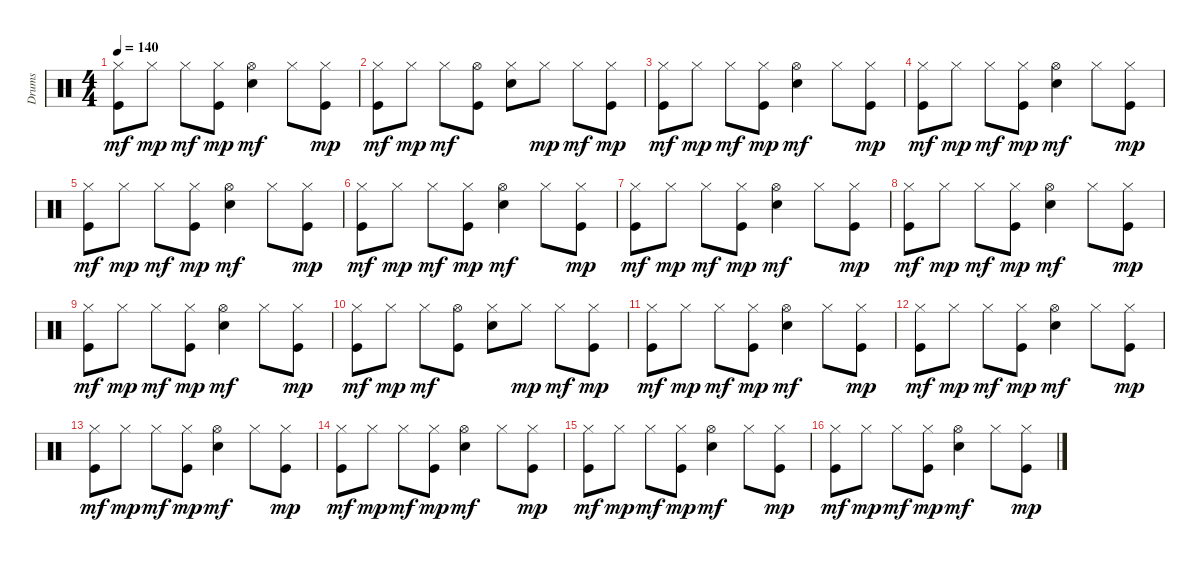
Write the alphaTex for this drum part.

\track ("Drums" "Drums") {instrument percussion}
\staff {score}
\articulation defaults
\ts (4 4)
\tempo 140
\clef neutral
\ks c
("Hi-Hat (closed)" "Kick (hit)").8{dy mf} "Hi-Hat (closed)".8{dy mp} "Hi-Hat (closed)".8{dy mf} ("Hi-Hat (closed)" "Kick (hit)").8{dy mp} ("Hi-Hat (open)" "Electric Snare (hit)").4{dy mf} "Hi-Hat (closed)".8 ("Hi-Hat (closed)" "Kick (hit)").8{dy mp} |
("Hi-Hat (closed)" "Kick (hit)").8{dy mf} "Hi-Hat (closed)".8{dy mp} "Hi-Hat (closed)".8{dy mf} ("Hi-Hat (open)" "Kick (hit)").8 ("Hi-Hat (closed)" "Electric Snare (hit)").8 "Hi-Hat (closed)".8{dy mp} "Hi-Hat (closed)".8{dy mf} ("Hi-Hat (closed)" "Kick (hit)").8{dy mp} |
("Kick (hit)" "Hi-Hat (closed)").8{dy mf} "Hi-Hat (closed)".8{dy mp} "Hi-Hat (closed)".8{dy mf} ("Kick (hit)" "Hi-Hat (closed)").8{dy mp} ("Electric Snare (hit)" "Hi-Hat (open)").4{dy mf} "Hi-Hat (closed)".8 ("Kick (hit)" "Hi-Hat (closed)").8{dy mp} |
("Kick (hit)" "Hi-Hat (closed)").8{dy mf} "Hi-Hat (closed)".8{dy mp} "Hi-Hat (closed)".8{dy mf} ("Kick (hit)" "Hi-Hat (closed)").8{dy mp} ("Electric Snare (hit)" "Hi-Hat (open)").4{dy mf} "Hi-Hat (closed)".8 ("Kick (hit)" "Hi-Hat (closed)").8{dy mp} |
("Kick (hit)" "Hi-Hat (closed)").8{dy mf} "Hi-Hat (closed)".8{dy mp} "Hi-Hat (closed)".8{dy mf} ("Kick (hit)" "Hi-Hat (closed)").8{dy mp} ("Electric Snare (hit)" "Hi-Hat (open)").4{dy mf} "Hi-Hat (closed)".8 ("Kick (hit)" "Hi-Hat (closed)").8{dy mp} |
("Kick (hit)" "Hi-Hat (closed)").8{dy mf} "Hi-Hat (closed)".8{dy mp} "Hi-Hat (closed)".8{dy mf} ("Kick (hit)" "Hi-Hat (closed)").8{dy mp} ("Electric Snare (hit)" "Hi-Hat (open)").4{dy mf} "Hi-Hat (closed)".8 ("Kick (hit)" "Hi-Hat (closed)").8{dy mp} |
("Kick (hit)" "Hi-Hat (closed)").8{dy mf} "Hi-Hat (closed)".8{dy mp} "Hi-Hat (closed)".8{dy mf} ("Kick (hit)" "Hi-Hat (closed)").8{dy mp} ("Electric Snare (hit)" "Hi-Hat (open)").4{dy mf} "Hi-Hat (closed)".8 ("Kick (hit)" "Hi-Hat (closed)").8{dy mp} |
("Kick (hit)" "Hi-Hat (closed)").8{dy mf} "Hi-Hat (closed)".8{dy mp} "Hi-Hat (closed)".8{dy mf} ("Kick (hit)" "Hi-Hat (closed)").8{dy mp} ("Electric Snare (hit)" "Hi-Hat (open)").4{dy mf} "Hi-Hat (closed)".8 ("Kick (hit)" "Hi-Hat (closed)").8{dy mp} |
("Kick (hit)" "Hi-Hat (closed)").8{dy mf} "Hi-Hat (closed)".8{dy mp} "Hi-Hat (closed)".8{dy mf} ("Kick (hit)" "Hi-Hat (closed)").8{dy mp} ("Electric Snare (hit)" "Hi-Hat (open)").4{dy mf} "Hi-Hat (closed)".8 ("Kick (hit)" "Hi-Hat (closed)").8{dy mp} |
("Kick (hit)" "Hi-Hat (closed)").8{dy mf} "Hi-Hat (closed)".8{dy mp} "Hi-Hat (closed)".8{dy mf} ("Kick (hit)" "Hi-Hat (open)").8 ("Electric Snare (hit)" "Hi-Hat (closed)").8 "Hi-Hat (closed)".8{dy mp} "Hi-Hat (closed)".8{dy mf} ("Kick (hit)" "Hi-Hat (closed)").8{dy mp} |
("Hi-Hat (closed)" "Kick (hit)").8{dy mf} "Hi-Hat (closed)".8{dy mp} "Hi-Hat (closed)".8{dy mf} ("Hi-Hat (closed)" "Kick (hit)").8{dy mp} ("Hi-Hat (open)" "Electric Snare (hit)").4{dy mf} "Hi-Hat (closed)".8 ("Hi-Hat (closed)" "Kick (hit)").8{dy mp} |
("Hi-Hat (closed)" "Kick (hit)").8{dy mf} "Hi-Hat (closed)".8{dy mp} "Hi-Hat (closed)".8{dy mf} ("Hi-Hat (closed)" "Kick (hit)").8{dy mp} ("Hi-Hat (open)" "Electric Snare (hit)").4{dy mf} "Hi-Hat (closed)".8 ("Hi-Hat (closed)" "Kick (hit)").8{dy mp} |
("Hi-Hat (closed)" "Kick (hit)").8{dy mf} "Hi-Hat (closed)".8{dy mp} "Hi-Hat (closed)".8{dy mf} ("Hi-Hat (closed)" "Kick (hit)").8{dy mp} ("Hi-Hat (open)" "Electric Snare (hit)").4{dy mf} "Hi-Hat (closed)".8 ("Hi-Hat (closed)" "Kick (hit)").8{dy mp} |
("Hi-Hat (closed)" "Kick (hit)").8{dy mf} "Hi-Hat (closed)".8{dy mp} "Hi-Hat (closed)".8{dy mf} ("Hi-Hat (closed)" "Kick (hit)").8{dy mp} ("Hi-Hat (open)" "Electric Snare (hit)").4{dy mf} "Hi-Hat (closed)".8 ("Hi-Hat (closed)" "Kick (hit)").8{dy mp} |
("Hi-Hat (closed)" "Kick (hit)").8{dy mf} "Hi-Hat (closed)".8{dy mp} "Hi-Hat (closed)".8{dy mf} ("Hi-Hat (closed)" "Kick (hit)").8{dy mp} ("Hi-Hat (open)" "Electric Snare (hit)").4{dy mf} "Hi-Hat (closed)".8 ("Hi-Hat (closed)" "Kick (hit)").8{dy mp} |
("Hi-Hat (closed)" "Kick (hit)").8{dy mf} "Hi-Hat (closed)".8{dy mp} "Hi-Hat (closed)".8{dy mf} ("Hi-Hat (closed)" "Kick (hit)").8{dy mp} ("Hi-Hat (open)" "Electric Snare (hit)").4{dy mf} "Hi-Hat (closed)".8 ("Hi-Hat (closed)" "Kick (hit)").8{dy mp}
